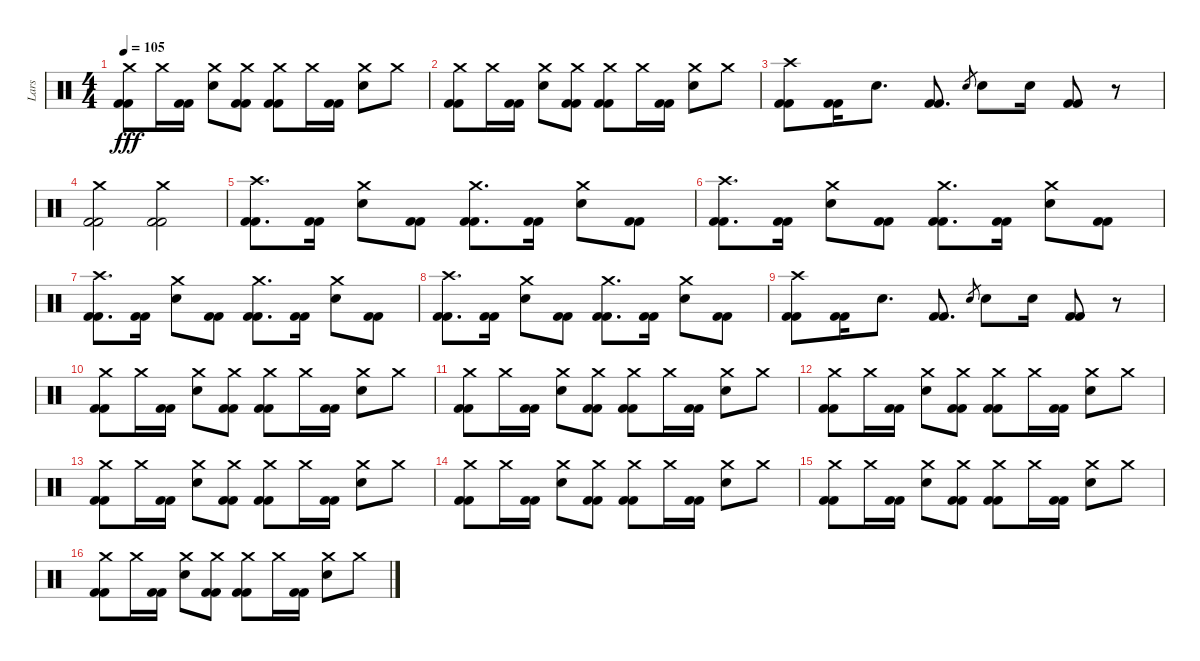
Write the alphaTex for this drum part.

\track ("Lars" "Lars") {instrument percussion}
\staff {score}
\articulation defaults
\ts (4 4)
\tempo 105
\clef neutral
\ks c
("Crash medium (hit)" "Kick (hit) 2" "Kick (hit) 2").8{dy fff} "Crash medium (hit)".16 ("Kick (hit) 2" "Kick (hit) 2").16 ("Crash medium (hit)" "Electric Snare (hit)").8 ("Crash medium (hit)" "Kick (hit) 2" "Kick (hit) 2").8 ("Crash medium (hit)" "Kick (hit) 2" "Kick (hit) 2").8 "Crash medium (hit)".16 ("Kick (hit) 2" "Kick (hit) 2").16 ("Crash medium (hit)" "Electric Snare (hit)").8 "Crash medium (hit)".8 |
("Crash medium (hit)" "Kick (hit) 2" "Kick (hit) 2").8 "Crash medium (hit)".16 ("Kick (hit) 2" "Kick (hit) 2").16 ("Crash medium (hit)" "Electric Snare (hit)").8 ("Crash medium (hit)" "Kick (hit) 2" "Kick (hit) 2").8 ("Crash medium (hit)" "Kick (hit) 2" "Kick (hit) 2").8 "Crash medium (hit)".16 ("Kick (hit) 2" "Kick (hit) 2").16 ("Crash medium (hit)" "Electric Snare (hit)").8 "Crash medium (hit)".8 |
("Crash high (hit)" "Kick (hit) 2" "Kick (hit) 2").8 ("Kick (hit) 2" "Kick (hit) 2").16 "Electric Snare (hit)".8{d} ("Kick (hit) 2" "Kick (hit) 2").8{d} "Electric Snare (hit)".8{gr} "Electric Snare (hit)".8 "Electric Snare (hit)".16 ("Kick (hit) 2" "Kick (hit) 2").8 r.8 |
("Crash medium (hit)" "Kick (hit) 2" "Kick (hit) 2").2 ("Crash medium (hit)" "Kick (hit) 2" "Kick (hit) 2").2 |
("Crash high (hit)" "Kick (hit) 2" "Kick (hit) 2").8{d} ("Kick (hit) 2" "Kick (hit) 2").16 ("Crash medium (hit)" "Electric Snare (hit)").8 ("Kick (hit) 2" "Kick (hit) 2").8 ("Crash medium (hit)" "Kick (hit) 2" "Kick (hit) 2").8{d} ("Kick (hit) 2" "Kick (hit) 2").16 ("Crash medium (hit)" "Electric Snare (hit)").8 ("Kick (hit) 2" "Kick (hit) 2").8 |
("Crash high (hit)" "Kick (hit) 2" "Kick (hit) 2").8{d} ("Kick (hit) 2" "Kick (hit) 2").16 ("Crash medium (hit)" "Electric Snare (hit)").8 ("Kick (hit) 2" "Kick (hit) 2").8 ("Crash medium (hit)" "Kick (hit) 2" "Kick (hit) 2").8{d} ("Kick (hit) 2" "Kick (hit) 2").16 ("Crash medium (hit)" "Electric Snare (hit)").8 ("Kick (hit) 2" "Kick (hit) 2").8 |
("Crash high (hit)" "Kick (hit) 2" "Kick (hit) 2").8{d} ("Kick (hit) 2" "Kick (hit) 2").16 ("Crash medium (hit)" "Electric Snare (hit)").8 ("Kick (hit) 2" "Kick (hit) 2").8 ("Crash medium (hit)" "Kick (hit) 2" "Kick (hit) 2").8{d} ("Kick (hit) 2" "Kick (hit) 2").16 ("Crash medium (hit)" "Electric Snare (hit)").8 ("Kick (hit) 2" "Kick (hit) 2").8 |
("Crash high (hit)" "Kick (hit) 2" "Kick (hit) 2").8{d} ("Kick (hit) 2" "Kick (hit) 2").16 ("Crash medium (hit)" "Electric Snare (hit)").8 ("Kick (hit) 2" "Kick (hit) 2").8 ("Crash medium (hit)" "Kick (hit) 2" "Kick (hit) 2").8{d} ("Kick (hit) 2" "Kick (hit) 2").16 ("Crash medium (hit)" "Electric Snare (hit)").8 ("Kick (hit) 2" "Kick (hit) 2").8 |
("Crash high (hit)" "Kick (hit) 2" "Kick (hit) 2").8 ("Kick (hit) 2" "Kick (hit) 2").16 "Electric Snare (hit)".8{d} ("Kick (hit) 2" "Kick (hit) 2").8{d} "Electric Snare (hit)".8{gr} "Electric Snare (hit)".8 "Electric Snare (hit)".16 ("Kick (hit) 2" "Kick (hit) 2").8 r.8 |
("Crash medium (hit)" "Kick (hit) 2" "Kick (hit) 2").8 "Crash medium (hit)".16 ("Kick (hit) 2" "Kick (hit) 2").16 ("Crash medium (hit)" "Electric Snare (hit)").8 ("Crash medium (hit)" "Kick (hit) 2" "Kick (hit) 2").8 ("Crash medium (hit)" "Kick (hit) 2" "Kick (hit) 2").8 "Crash medium (hit)".16 ("Kick (hit) 2" "Kick (hit) 2").16 ("Crash medium (hit)" "Electric Snare (hit)").8 "Crash medium (hit)".8 |
("Crash medium (hit)" "Kick (hit) 2" "Kick (hit) 2").8 "Crash medium (hit)".16 ("Kick (hit) 2" "Kick (hit) 2").16 ("Crash medium (hit)" "Electric Snare (hit)").8 ("Crash medium (hit)" "Kick (hit) 2" "Kick (hit) 2").8 ("Crash medium (hit)" "Kick (hit) 2" "Kick (hit) 2").8 "Crash medium (hit)".16 ("Kick (hit) 2" "Kick (hit) 2").16 ("Crash medium (hit)" "Electric Snare (hit)").8 "Crash medium (hit)".8 |
("Crash medium (hit)" "Kick (hit) 2" "Kick (hit) 2").8 "Crash medium (hit)".16 ("Kick (hit) 2" "Kick (hit) 2").16 ("Crash medium (hit)" "Electric Snare (hit)").8 ("Crash medium (hit)" "Kick (hit) 2" "Kick (hit) 2").8 ("Crash medium (hit)" "Kick (hit) 2" "Kick (hit) 2").8 "Crash medium (hit)".16 ("Kick (hit) 2" "Kick (hit) 2").16 ("Crash medium (hit)" "Electric Snare (hit)").8 "Crash medium (hit)".8 |
("Crash medium (hit)" "Kick (hit) 2" "Kick (hit) 2").8 "Crash medium (hit)".16 ("Kick (hit) 2" "Kick (hit) 2").16 ("Crash medium (hit)" "Electric Snare (hit)").8 ("Crash medium (hit)" "Kick (hit) 2" "Kick (hit) 2").8 ("Crash medium (hit)" "Kick (hit) 2" "Kick (hit) 2").8 "Crash medium (hit)".16 ("Kick (hit) 2" "Kick (hit) 2").16 ("Crash medium (hit)" "Electric Snare (hit)").8 "Crash medium (hit)".8 |
("Crash medium (hit)" "Kick (hit) 2" "Kick (hit) 2").8 "Crash medium (hit)".16 ("Kick (hit) 2" "Kick (hit) 2").16 ("Crash medium (hit)" "Electric Snare (hit)").8 ("Crash medium (hit)" "Kick (hit) 2" "Kick (hit) 2").8 ("Crash medium (hit)" "Kick (hit) 2" "Kick (hit) 2").8 "Crash medium (hit)".16 ("Kick (hit) 2" "Kick (hit) 2").16 ("Crash medium (hit)" "Electric Snare (hit)").8 "Crash medium (hit)".8 |
("Crash medium (hit)" "Kick (hit) 2" "Kick (hit) 2").8 "Crash medium (hit)".16 ("Kick (hit) 2" "Kick (hit) 2").16 ("Crash medium (hit)" "Electric Snare (hit)").8 ("Crash medium (hit)" "Kick (hit) 2" "Kick (hit) 2").8 ("Crash medium (hit)" "Kick (hit) 2" "Kick (hit) 2").8 "Crash medium (hit)".16 ("Kick (hit) 2" "Kick (hit) 2").16 ("Crash medium (hit)" "Electric Snare (hit)").8 "Crash medium (hit)".8 |
("Crash medium (hit)" "Kick (hit) 2" "Kick (hit) 2").8 "Crash medium (hit)".16 ("Kick (hit) 2" "Kick (hit) 2").16 ("Crash medium (hit)" "Electric Snare (hit)").8 ("Crash medium (hit)" "Kick (hit) 2" "Kick (hit) 2").8 ("Crash medium (hit)" "Kick (hit) 2" "Kick (hit) 2").8 "Crash medium (hit)".16 ("Kick (hit) 2" "Kick (hit) 2").16 ("Crash medium (hit)" "Electric Snare (hit)").8 "Crash medium (hit)".8
